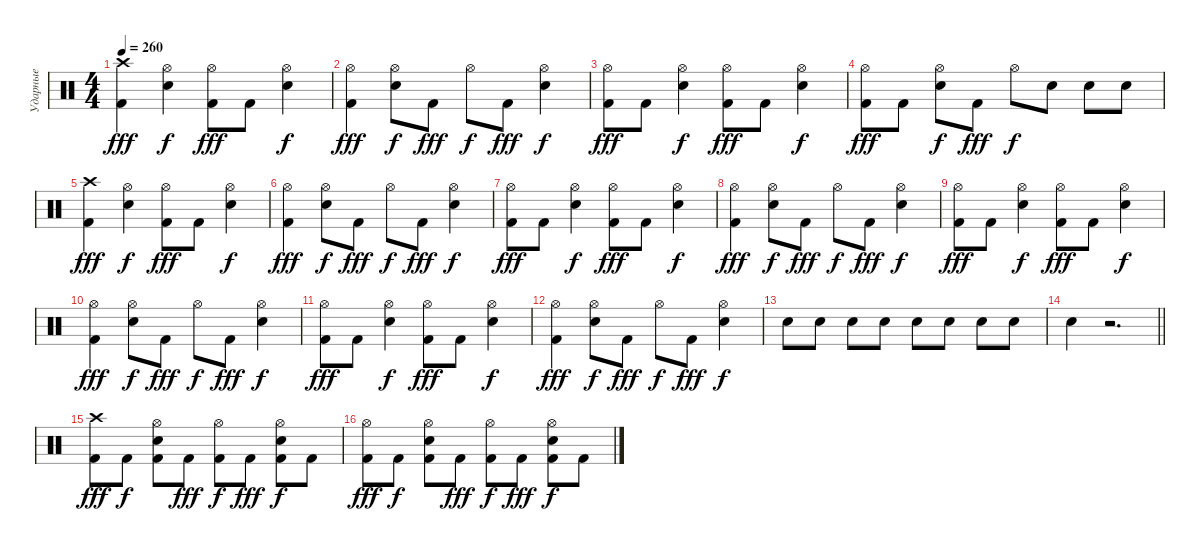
\track ("Ударные" "Ударные") {instrument percussion}
\staff {score}
\articulation defaults
\ts (4 4)
\tempo 260
\clef neutral
\ks c
("Kick (hit) 2" "Crash high (hit)").4{dy fff} ("Snare (hit) 2" "Hi-Hat (open)").4{dy f} ("Kick (hit) 2" "Hi-Hat (open)").8{dy fff} "Kick (hit) 2".8 ("Snare (hit) 2" "Hi-Hat (open)").4{dy f} |
("Kick (hit) 2" "Hi-Hat (open)").4{dy fff} ("Snare (hit) 2" "Hi-Hat (open)").8{dy f} "Kick (hit) 2".8{dy fff} "Hi-Hat (open)".8{dy f} "Kick (hit) 2".8{dy fff} ("Snare (hit) 2" "Hi-Hat (open)").4{dy f} |
("Kick (hit) 2" "Hi-Hat (open)").8{dy fff} "Kick (hit) 2".8 ("Snare (hit) 2" "Hi-Hat (open)").4{dy f} ("Kick (hit) 2" "Hi-Hat (open)").8{dy fff} "Kick (hit) 2".8 ("Snare (hit) 2" "Hi-Hat (open)").4{dy f} |
("Kick (hit) 2" "Hi-Hat (open)").8{dy fff} "Kick (hit) 2".8 ("Snare (hit) 2" "Hi-Hat (open)").8{dy f} "Kick (hit) 2".8{dy fff} "Hi-Hat (open)".8{dy f} "Snare (hit) 2".8 "Snare (hit) 2".8 "Snare (hit) 2".8 |
("Kick (hit) 2" "Crash high (hit)").4{dy fff} ("Snare (hit) 2" "Hi-Hat (open)").4{dy f} ("Kick (hit) 2" "Hi-Hat (open)").8{dy fff} "Kick (hit) 2".8 ("Snare (hit) 2" "Hi-Hat (open)").4{dy f} |
("Kick (hit) 2" "Hi-Hat (open)").4{dy fff} ("Snare (hit) 2" "Hi-Hat (open)").8{dy f} "Kick (hit) 2".8{dy fff} "Hi-Hat (open)".8{dy f} "Kick (hit) 2".8{dy fff} ("Snare (hit) 2" "Hi-Hat (open)").4{dy f} |
("Kick (hit) 2" "Hi-Hat (open)").8{dy fff} "Kick (hit) 2".8 ("Snare (hit) 2" "Hi-Hat (open)").4{dy f} ("Kick (hit) 2" "Hi-Hat (open)").8{dy fff} "Kick (hit) 2".8 ("Snare (hit) 2" "Hi-Hat (open)").4{dy f} |
("Kick (hit) 2" "Hi-Hat (open)").4{dy fff} ("Snare (hit) 2" "Hi-Hat (open)").8{dy f} "Kick (hit) 2".8{dy fff} "Hi-Hat (open)".8{dy f} "Kick (hit) 2".8{dy fff} ("Snare (hit) 2" "Hi-Hat (open)").4{dy f} |
("Kick (hit) 2" "Hi-Hat (open)").8{dy fff} "Kick (hit) 2".8 ("Snare (hit) 2" "Hi-Hat (open)").4{dy f} ("Kick (hit) 2" "Hi-Hat (open)").8{dy fff} "Kick (hit) 2".8 ("Snare (hit) 2" "Hi-Hat (open)").4{dy f} |
("Kick (hit) 2" "Hi-Hat (open)").4{dy fff} ("Snare (hit) 2" "Hi-Hat (open)").8{dy f} "Kick (hit) 2".8{dy fff} "Hi-Hat (open)".8{dy f} "Kick (hit) 2".8{dy fff} ("Snare (hit) 2" "Hi-Hat (open)").4{dy f} |
("Kick (hit) 2" "Hi-Hat (open)").8{dy fff} "Kick (hit) 2".8 ("Snare (hit) 2" "Hi-Hat (open)").4{dy f} ("Kick (hit) 2" "Hi-Hat (open)").8{dy fff} "Kick (hit) 2".8 ("Snare (hit) 2" "Hi-Hat (open)").4{dy f} |
("Kick (hit) 2" "Hi-Hat (open)").4{dy fff} ("Snare (hit) 2" "Hi-Hat (open)").8{dy f} "Kick (hit) 2".8{dy fff} "Hi-Hat (open)".8{dy f} "Kick (hit) 2".8{dy fff} ("Snare (hit) 2" "Hi-Hat (open)").4{dy f} |
"Snare (hit) 2".8 "Snare (hit) 2".8 "Snare (hit) 2".8 "Snare (hit) 2".8 "Snare (hit) 2".8 "Snare (hit) 2".8 "Snare (hit) 2".8 "Snare (hit) 2".8 |
\barLineRight lightlight "Snare (hit) 2".4
r.2{d} |
("Kick (hit) 2" "Crash high (hit)").8{dy fff} "Kick (hit) 2".8{dy f} ("Kick (hit) 2" "Snare (hit) 2" "Hi-Hat (open)").8 "Kick (hit) 2".8{dy fff} ("Kick (hit) 2" "Hi-Hat (open)").8{dy f} "Kick (hit) 2".8{dy fff} ("Kick (hit) 2" "Snare (hit) 2" "Hi-Hat (open)").8{dy f} "Kick (hit) 2".8 |
("Kick (hit) 2" "Hi-Hat (open)").8{dy fff} "Kick (hit) 2".8{dy f} ("Kick (hit) 2" "Snare (hit) 2" "Hi-Hat (open)").8 "Kick (hit) 2".8{dy fff} ("Kick (hit) 2" "Hi-Hat (open)").8{dy f} "Kick (hit) 2".8{dy fff} ("Kick (hit) 2" "Snare (hit) 2" "Hi-Hat (open)").8{dy f} "Kick (hit) 2".8
